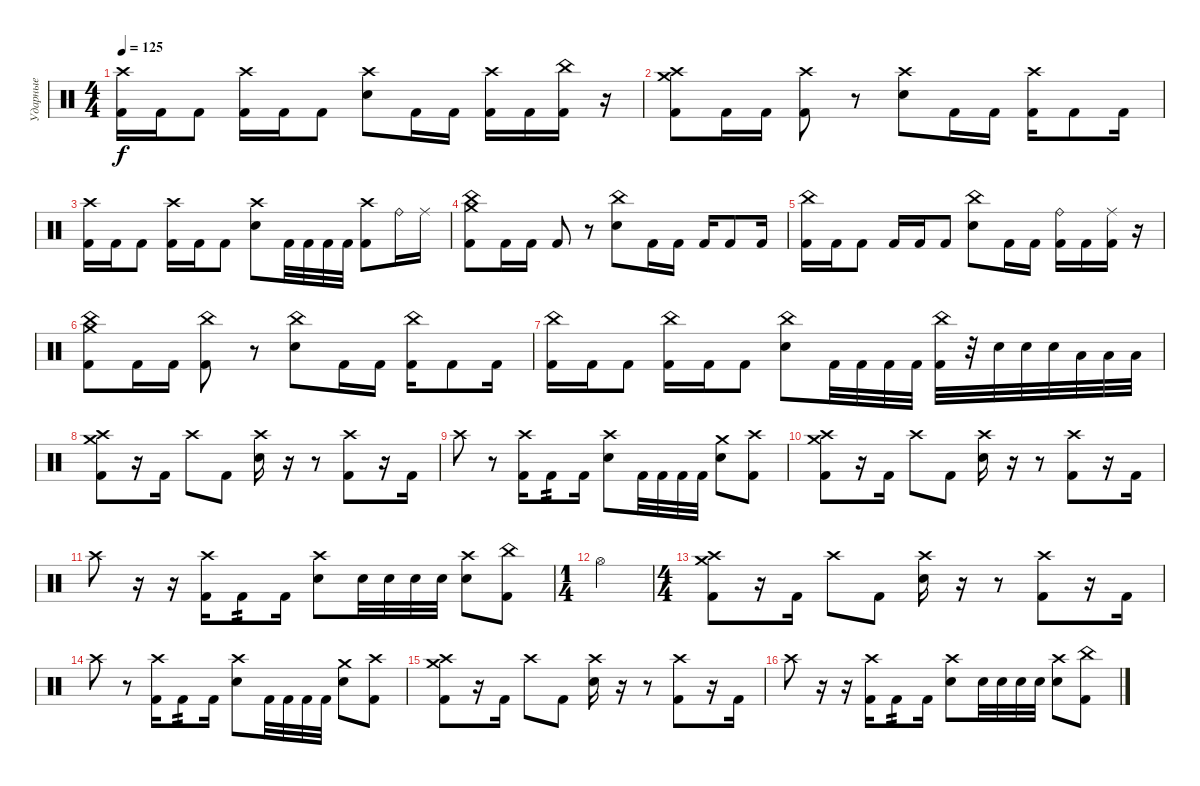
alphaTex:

\track ("Ударные" "Ударные") {instrument percussion}
\staff {score}
\articulation defaults
\ts (4 4)
\tempo 125
\clef neutral
\ks c
("Crash high (hit)" "Kick (hit) 2").16{dy f} "Kick (hit) 2".16 "Kick (hit) 2".8 ("Crash high (hit)" "Kick (hit) 2").16 "Kick (hit) 2".16 "Kick (hit) 2".8 ("Crash high (hit)" "Snare (hit) 2").8 "Kick (hit) 2".16 "Kick (hit) 2".16 ("Crash high (hit)" "Kick (hit) 2").16 "Kick (hit) 2".16 ("China (hit)" "Kick (hit) 2").16 r.16 |
("Crash medium (hit)" "Crash high (hit)" "Kick (hit) 2").8 "Kick (hit) 2".16 "Kick (hit) 2".16 ("Crash high (hit)" "Kick (hit) 2").8 r.8 ("Crash high (hit)" "Snare (hit) 2").8 "Kick (hit) 2".16 "Kick (hit) 2".16 ("Crash high (hit)" "Kick (hit) 2").16 "Kick (hit) 2".8 "Kick (hit) 2".16 |
("Crash high (hit)" "Kick (hit) 2").16 "Kick (hit) 2".16 "Kick (hit) 2".8 ("Crash high (hit)" "Kick (hit) 2").16 "Kick (hit) 2".16 "Kick (hit) 2".8 ("Crash high (hit)" "Snare (hit) 2").8 "Kick (hit) 2".32 "Kick (hit) 2".32 "Kick (hit) 2".32 "Kick (hit) 2".32 ("Crash high (hit)" "Kick (hit) 2").8 "Ride (bell)".16 "Ride (middle)".16 |
("Crash medium (hit)" "China (hit)" "Kick (hit) 2").8 "Kick (hit) 2".16 "Kick (hit) 2".16 "Kick (hit) 2".8 r.8 ("China (hit)" "Snare (hit) 2").8 "Kick (hit) 2".16 "Kick (hit) 2".16 "Kick (hit) 2".16 "Kick (hit) 2".8 "Kick (hit) 2".16 |
("China (hit)" "Kick (hit) 2").16 "Kick (hit) 2".16 "Kick (hit) 2".8 "Kick (hit) 2".16 "Kick (hit) 2".16 "Kick (hit) 2".8 ("China (hit)" "Snare (hit) 2").8 "Kick (hit) 2".16 "Kick (hit) 2".16 ("Ride (bell)" "Kick (hit) 2").16 "Kick (hit) 2".16 ("Ride (middle)" "Kick (hit) 2").16 r.16 |
("China (hit)" "Crash medium (hit)" "Kick (hit) 2").8 "Kick (hit) 2".16 "Kick (hit) 2".16 ("China (hit)" "Kick (hit) 2").8 r.8 ("China (hit)" "Snare (hit) 2").8 "Kick (hit) 2".16 "Kick (hit) 2".16 ("China (hit)" "Kick (hit) 2").16 "Kick (hit) 2".8 "Kick (hit) 2".16 |
("China (hit)" "Kick (hit) 2").16 "Kick (hit) 2".16 "Kick (hit) 2".8 ("China (hit)" "Kick (hit) 2").16 "Kick (hit) 2".16 "Kick (hit) 2".8 ("China (hit)" "Snare (hit) 2").8 "Kick (hit) 2".32 "Kick (hit) 2".32 "Kick (hit) 2".32 "Kick (hit) 2".32 ("China (hit)" "Kick (hit) 2").32 r.32 "Snare (hit) 2".32 "Snare (hit) 2".32 "Snare (hit) 2".32 "Low Floor Tom (hit)".32 "Low Floor Tom (hit)".32 "Low Floor Tom (hit)".32 |
("Crash high (hit)" "Crash medium (hit)" "Kick (hit) 2").8 r.16 "Kick (hit) 2".16 "Crash high (hit)".8 "Kick (hit) 2".8 ("Crash high (hit)" "Snare (hit) 2").16 r.16 r.8 ("Crash high (hit)" "Kick (hit) 2").8 r.16 "Kick (hit) 2".16 |
"Crash high (hit)".8 r.8 ("Crash high (hit)" "Kick (hit) 2").16 "Kick (hit) 2".8{tp 2} "Kick (hit) 2".16 ("Crash high (hit)" "Snare (hit) 2").8 "Kick (hit) 2".32 "Kick (hit) 2".32 "Kick (hit) 2".32 "Kick (hit) 2".32 ("Crash medium (hit)" "Electric Snare (hit)").8 ("Crash high (hit)" "Kick (hit) 2").8 |
("Crash high (hit)" "Crash medium (hit)" "Kick (hit) 2").8 r.16 "Kick (hit) 2".16 "Crash high (hit)".8 "Kick (hit) 2".8 ("Crash high (hit)" "Snare (hit) 2").16 r.16 r.8 ("Crash high (hit)" "Kick (hit) 2").8 r.16 "Kick (hit) 2".16 |
"Crash high (hit)".8 r.16 r.16 ("Crash high (hit)" "Kick (hit) 2").16 "Kick (hit) 2".8{tp 2} "Kick (hit) 2".16 ("Crash high (hit)" "Snare (hit) 2").8 "Snare (hit) 2".32 "Snare (hit) 2".32 "Snare (hit) 2".32 "Snare (hit) 2".32 ("Crash high (hit)" "Snare (hit) 2").8 ("China (hit)" "Kick (hit) 2").8 |
\ts (1 4)
"Hi-Hat (open)".4 |
\ts (4 4)
("Crash high (hit)" "Crash medium (hit)" "Kick (hit) 2").8 r.16 "Kick (hit) 2".16 "Crash high (hit)".8 "Kick (hit) 2".8 ("Crash high (hit)" "Snare (hit) 2").16 r.16 r.8 ("Crash high (hit)" "Kick (hit) 2").8 r.16 "Kick (hit) 2".16 |
"Crash high (hit)".8 r.8 ("Crash high (hit)" "Kick (hit) 2").16 "Kick (hit) 2".8{tp 2} "Kick (hit) 2".16 ("Crash high (hit)" "Snare (hit) 2").8 "Kick (hit) 2".32 "Kick (hit) 2".32 "Kick (hit) 2".32 "Kick (hit) 2".32 ("Crash medium (hit)" "Electric Snare (hit)").8 ("Crash high (hit)" "Kick (hit) 2").8 |
("Crash high (hit)" "Crash medium (hit)" "Kick (hit) 2").8 r.16 "Kick (hit) 2".16 "Crash high (hit)".8 "Kick (hit) 2".8 ("Crash high (hit)" "Snare (hit) 2").16 r.16 r.8 ("Crash high (hit)" "Kick (hit) 2").8 r.16 "Kick (hit) 2".16 |
"Crash high (hit)".8 r.16 r.16 ("Crash high (hit)" "Kick (hit) 2").16 "Kick (hit) 2".8{tp 2} "Kick (hit) 2".16 ("Crash high (hit)" "Snare (hit) 2").8 "Snare (hit) 2".32 "Snare (hit) 2".32 "Snare (hit) 2".32 "Snare (hit) 2".32 ("Crash high (hit)" "Snare (hit) 2").8 ("China (hit)" "Kick (hit) 2").8
